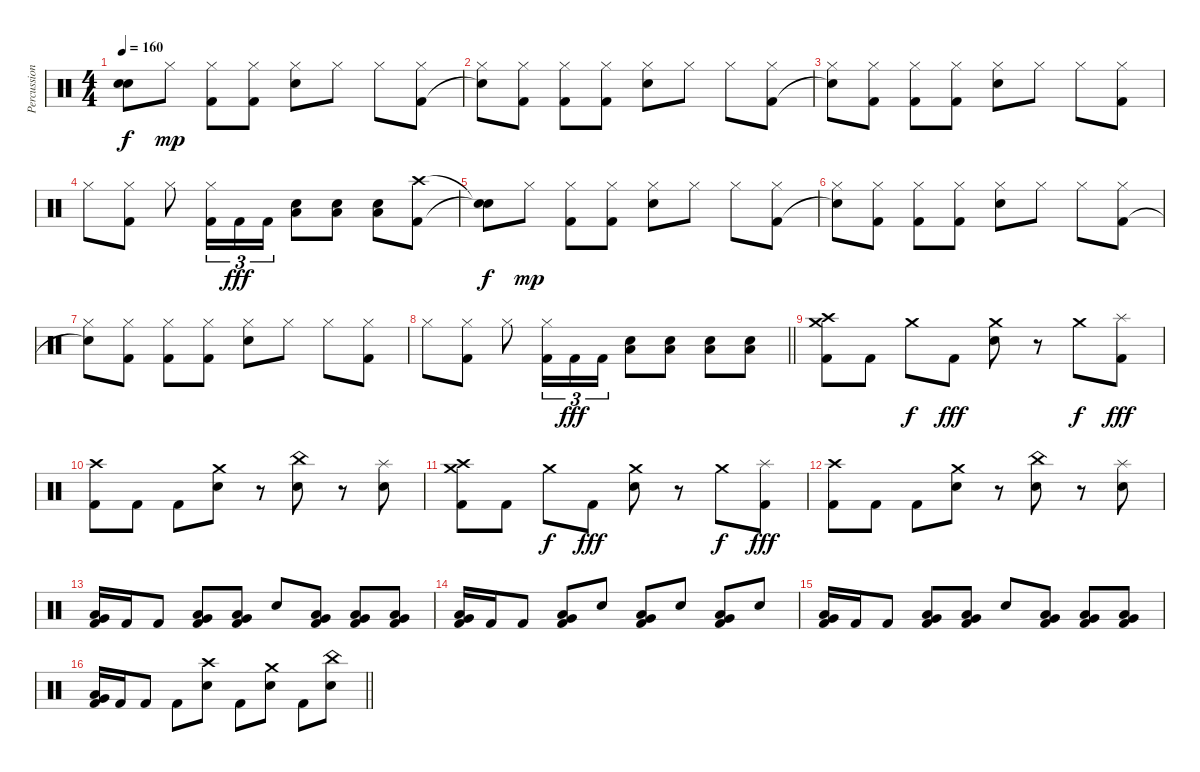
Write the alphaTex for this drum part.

\track ("Percussion" "Percussion") {instrument percussion}
\staff {score}
\articulation defaults
\ts (4 4)
\tempo 160
\clef neutral
\ks c
("Snare (hit)"{t} "Snare (hit)"{t}).8{dy f} "Hi-Hat (closed)".8{dy mp} ("Kick (hit) 2" "Hi-Hat (closed)").8 ("Kick (hit) 2" "Hi-Hat (closed)").8 ("Electric Snare (hit)" "Hi-Hat (closed)").8 "Hi-Hat (closed)".8 "Hi-Hat (closed)".8 ("Kick (hit) 2" "Hi-Hat (closed)").8 |
("Snare (hit)"{t} "Hi-Hat (closed)").8 ("Kick (hit) 2" "Hi-Hat (closed)").8 ("Kick (hit) 2" "Hi-Hat (closed)").8 ("Kick (hit) 2" "Hi-Hat (closed)").8 ("Electric Snare (hit)" "Hi-Hat (closed)").8 "Hi-Hat (closed)".8 "Hi-Hat (closed)".8 ("Kick (hit) 2" "Hi-Hat (closed)").8 |
("Snare (hit)"{t} "Hi-Hat (closed)").8 ("Kick (hit) 2" "Hi-Hat (closed)").8 ("Kick (hit) 2" "Hi-Hat (closed)").8 ("Kick (hit) 2" "Hi-Hat (closed)").8 ("Electric Snare (hit)" "Hi-Hat (closed)").8 "Hi-Hat (closed)".8 "Hi-Hat (closed)".8 ("Kick (hit) 2" "Hi-Hat (closed)").8 |
"Hi-Hat (closed)".8 ("Kick (hit) 2" "Hi-Hat (closed)").8 "Hi-Hat (closed)".8 ("Kick (hit) 2" "Hi-Hat (closed)").16{tu (3 2)} "Kick (hit) 2".16{tu (3 2) dy fff} "Kick (hit) 2".16{tu (3 2)} ("Electric Snare (hit)" "Low Tom (hit)").8 ("Electric Snare (hit)" "Low Tom (hit)").8 ("Electric Snare (hit)" "Low Tom (hit)").8 ("Kick (hit) 2" "Crash high (hit)").8 |
("Snare (hit)"{t} "Snare (hit)"{t}).8{dy f} "Hi-Hat (closed)".8{dy mp} ("Kick (hit) 2" "Hi-Hat (closed)").8 ("Kick (hit) 2" "Hi-Hat (closed)").8 ("Electric Snare (hit)" "Hi-Hat (closed)").8 "Hi-Hat (closed)".8 "Hi-Hat (closed)".8 ("Kick (hit) 2" "Hi-Hat (closed)").8 |
("Snare (hit)"{t} "Hi-Hat (closed)").8 ("Kick (hit) 2" "Hi-Hat (closed)").8 ("Kick (hit) 2" "Hi-Hat (closed)").8 ("Kick (hit) 2" "Hi-Hat (closed)").8 ("Electric Snare (hit)" "Hi-Hat (closed)").8 "Hi-Hat (closed)".8 "Hi-Hat (closed)".8 ("Kick (hit) 2" "Hi-Hat (closed)").8 |
("Snare (hit)"{t} "Hi-Hat (closed)").8 ("Kick (hit) 2" "Hi-Hat (closed)").8 ("Kick (hit) 2" "Hi-Hat (closed)").8 ("Kick (hit) 2" "Hi-Hat (closed)").8 ("Electric Snare (hit)" "Hi-Hat (closed)").8 "Hi-Hat (closed)".8 "Hi-Hat (closed)".8 ("Kick (hit) 2" "Hi-Hat (closed)").8 |
\barLineRight lightlight "Hi-Hat (closed)".8
("Kick (hit) 2" "Hi-Hat (closed)").8 "Hi-Hat (closed)".8 ("Kick (hit) 2" "Hi-Hat (closed)").16{tu (3 2)} "Kick (hit) 2".16{tu (3 2) dy fff} "Kick (hit) 2".16{tu (3 2)} ("Electric Snare (hit)" "Low Tom (hit)").8 ("Electric Snare (hit)" "Low Tom (hit)").8 ("Electric Snare (hit)" "Low Tom (hit)").8 ("Electric Snare (hit)" "Low Tom (hit)").8 |
("Kick (hit) 2" "Crash high (hit)" "Crash medium (hit)").8 "Kick (hit) 2".8 "Crash medium (hit)".8{dy f} "Kick (hit) 2".8{dy fff} ("Electric Snare (hit)" "Crash medium (hit)").8 r.8 "Crash medium (hit)".8{dy f} ("Kick (hit) 2" "Splash (hit)").8{dy fff} |
("Kick (hit) 2" "Crash high (hit)").8 "Kick (hit) 2".8 "Kick (hit) 2".8 ("Electric Snare (hit)" "Crash medium (hit)").8 r.8 ("Electric Snare (hit)" "China (hit)").8 r.8 ("Electric Snare (hit)" "Splash (hit)").8 |
("Kick (hit) 2" "Crash high (hit)" "Crash medium (hit)").8 "Kick (hit) 2".8 "Crash medium (hit)".8{dy f} "Kick (hit) 2".8{dy fff} ("Electric Snare (hit)" "Crash medium (hit)").8 r.8 "Crash medium (hit)".8{dy f} ("Kick (hit) 2" "Splash (hit)").8{dy fff} |
("Kick (hit) 2" "Crash high (hit)").8 "Kick (hit) 2".8 "Kick (hit) 2".8 ("Electric Snare (hit)" "Crash medium (hit)").8 r.8 ("Electric Snare (hit)" "China (hit)").8 r.8 ("Electric Snare (hit)" "Splash (hit)").8 |
("Kick (hit) 2" "Low Floor Tom (hit)" "Very Low Tom (hit)").16 "Kick (hit) 2".16 "Kick (hit) 2".8 ("Kick (hit) 2" "Low Floor Tom (hit)" "Very Low Tom (hit)").8 ("Kick (hit) 2" "Low Floor Tom (hit)" "Very Low Tom (hit)").8 "Electric Snare (hit)".8 ("Kick (hit) 2" "Low Floor Tom (hit)" "Very Low Tom (hit)").8 ("Kick (hit) 2" "Low Floor Tom (hit)" "Very Low Tom (hit)").8 ("Kick (hit) 2" "Low Floor Tom (hit)" "Very Low Tom (hit)").8 |
("Kick (hit) 2" "Low Floor Tom (hit)" "Very Low Tom (hit)").16 "Kick (hit) 2".16 "Kick (hit) 2".8 ("Kick (hit) 2" "Low Floor Tom (hit)" "Very Low Tom (hit)").8 "Electric Snare (hit)".8 ("Kick (hit) 2" "Low Floor Tom (hit)" "Very Low Tom (hit)").8 "Electric Snare (hit)".8 ("Kick (hit) 2" "Low Floor Tom (hit)" "Very Low Tom (hit)").8 "Electric Snare (hit)".8 |
("Kick (hit) 2" "Low Floor Tom (hit)" "Very Low Tom (hit)").16 "Kick (hit) 2".16 "Kick (hit) 2".8 ("Kick (hit) 2" "Low Floor Tom (hit)" "Very Low Tom (hit)").8 ("Kick (hit) 2" "Low Floor Tom (hit)" "Very Low Tom (hit)").8 "Electric Snare (hit)".8 ("Kick (hit) 2" "Low Floor Tom (hit)" "Very Low Tom (hit)").8 ("Kick (hit) 2" "Low Floor Tom (hit)" "Very Low Tom (hit)").8 ("Kick (hit) 2" "Low Floor Tom (hit)" "Very Low Tom (hit)").8 |
\barLineRight lightlight
("Kick (hit) 2" "Low Floor Tom (hit)" "Very Low Tom (hit)").16 "Kick (hit) 2".16 "Kick (hit) 2".8 "Kick (hit) 2".8 ("Electric Snare (hit)" "Crash high (hit)").8 "Kick (hit) 2".8 ("Electric Snare (hit)" "Crash medium (hit)").8 "Kick (hit) 2".8 ("Electric Snare (hit)" "China (hit)").8
